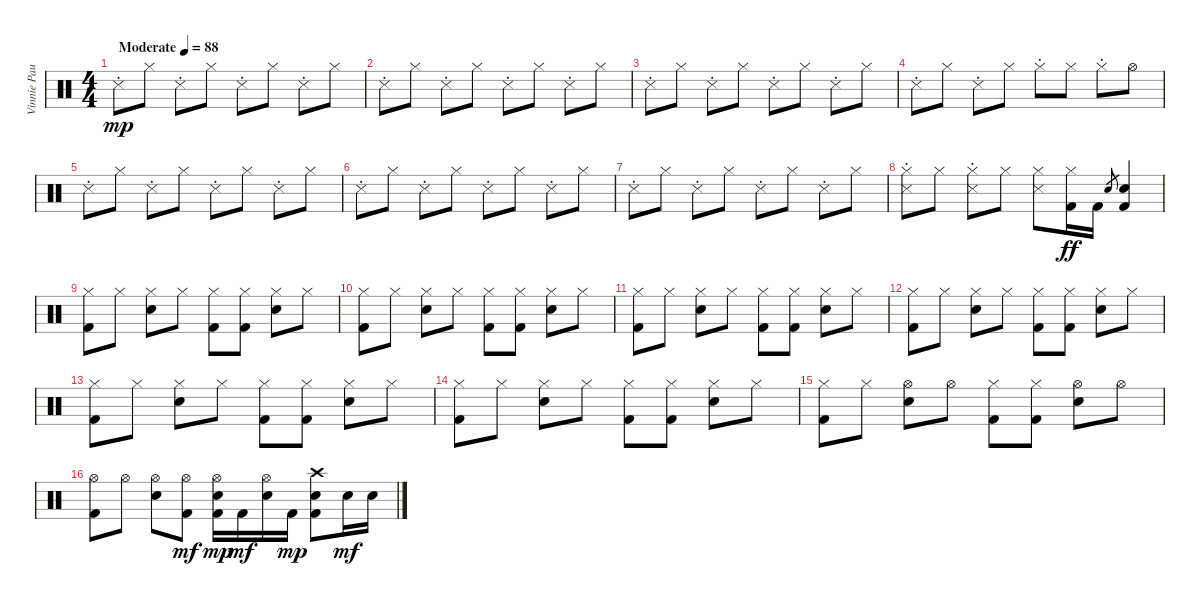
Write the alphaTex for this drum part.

\track ("Vinnie Paul" "Vinnie Pau") {instrument percussion}
\staff {score}
\articulation defaults
\ts (4 4)
\tempo (88 "Moderate")
\clef neutral
\ks c "Snare (side stick) 3"{st}.8{dy mp} "Hi-Hat (closed)".8 "Snare (side stick) 3"{st}.8 "Hi-Hat (closed)".8 "Snare (side stick) 3"{st}.8 "Hi-Hat (closed)".8 "Snare (side stick) 3"{st}.8 "Hi-Hat (closed)".8
|
"Snare (side stick) 3"{st}.8 "Hi-Hat (closed)".8 "Snare (side stick) 3"{st}.8 "Hi-Hat (closed)".8 "Snare (side stick) 3"{st}.8 "Hi-Hat (closed)".8 "Snare (side stick) 3"{st}.8 "Hi-Hat (closed)".8 |
"Snare (side stick) 3"{st}.8 "Hi-Hat (closed)".8 "Snare (side stick) 3"{st}.8 "Hi-Hat (closed)".8 "Snare (side stick) 3"{st}.8 "Hi-Hat (closed)".8 "Snare (side stick) 3"{st}.8 "Hi-Hat (closed)".8 |
"Snare (side stick) 3"{st}.8 "Hi-Hat (closed)".8 "Snare (side stick) 3"{st}.8 "Hi-Hat (closed)".8 "Hi-Hat (closed)"{st}.8 "Hi-Hat (closed)".8 "Hi-Hat (closed)"{st}.8 "Hi-Hat (open)".8 |
"Snare (side stick) 3"{st}.8 "Hi-Hat (closed)".8 "Snare (side stick) 3"{st}.8 "Hi-Hat (closed)".8 "Snare (side stick) 3"{st}.8 "Hi-Hat (closed)".8 "Snare (side stick) 3"{st}.8 "Hi-Hat (closed)".8 |
"Snare (side stick) 3"{st}.8 "Hi-Hat (closed)".8 "Snare (side stick) 3"{st}.8 "Hi-Hat (closed)".8 "Snare (side stick) 3"{st}.8 "Hi-Hat (closed)".8 "Snare (side stick) 3"{st}.8 "Hi-Hat (closed)".8 |
"Snare (side stick) 3"{st}.8 "Hi-Hat (closed)".8 "Snare (side stick) 3"{st}.8 "Hi-Hat (closed)".8 "Snare (side stick) 3"{st}.8 "Hi-Hat (closed)".8 "Snare (side stick) 3"{st}.8 "Hi-Hat (closed)".8 |
("Snare (side stick) 3"{st} "Hi-Hat (closed)").8 "Hi-Hat (closed)".8 ("Snare (side stick) 3"{st} "Hi-Hat (closed)").8 "Hi-Hat (closed)".8 ("Snare (side stick) 3" "Hi-Hat (closed)").8 ("Hi-Hat (closed)" "Kick (hit) 2").16{dy ff} "Kick (hit) 2".16 "Electric Snare (hit)".8{gr} ("Electric Snare (hit)" "Kick (hit) 2").4 |
("Hi-Hat (closed)" "Kick (hit) 2").8 "Hi-Hat (closed)".8 ("Hi-Hat (closed)" "Electric Snare (hit)").8 "Hi-Hat (closed)".8 ("Hi-Hat (closed)" "Kick (hit) 2").8 ("Hi-Hat (closed)" "Kick (hit) 2").8 ("Hi-Hat (closed)" "Electric Snare (hit)").8 "Hi-Hat (closed)".8 |
("Hi-Hat (closed)" "Kick (hit) 2").8 "Hi-Hat (closed)".8 ("Hi-Hat (closed)" "Electric Snare (hit)").8 "Hi-Hat (closed)".8 ("Hi-Hat (closed)" "Kick (hit) 2").8 ("Hi-Hat (closed)" "Kick (hit) 2").8 ("Hi-Hat (closed)" "Electric Snare (hit)").8 "Hi-Hat (closed)".8 |
("Hi-Hat (closed)" "Kick (hit) 2").8 "Hi-Hat (closed)".8 ("Hi-Hat (closed)" "Electric Snare (hit)").8 "Hi-Hat (closed)".8 ("Hi-Hat (closed)" "Kick (hit) 2").8 ("Hi-Hat (closed)" "Kick (hit) 2").8 ("Hi-Hat (closed)" "Electric Snare (hit)").8 "Hi-Hat (closed)".8 |
("Hi-Hat (closed)" "Kick (hit) 2").8 "Hi-Hat (closed)".8 ("Hi-Hat (closed)" "Electric Snare (hit)").8 "Hi-Hat (closed)".8 ("Hi-Hat (closed)" "Kick (hit) 2").8 ("Hi-Hat (closed)" "Kick (hit) 2").8 ("Hi-Hat (closed)" "Electric Snare (hit)").8 "Hi-Hat (closed)".8 |
("Hi-Hat (closed)" "Kick (hit) 2").8 "Hi-Hat (closed)".8 ("Hi-Hat (closed)" "Electric Snare (hit)").8 "Hi-Hat (closed)".8 ("Hi-Hat (closed)" "Kick (hit) 2").8 ("Hi-Hat (closed)" "Kick (hit) 2").8 ("Hi-Hat (closed)" "Electric Snare (hit)").8 "Hi-Hat (closed)".8 |
("Hi-Hat (closed)" "Kick (hit) 2").8 "Hi-Hat (closed)".8 ("Hi-Hat (closed)" "Electric Snare (hit)").8 "Hi-Hat (closed)".8 ("Hi-Hat (closed)" "Kick (hit) 2").8 ("Hi-Hat (closed)" "Kick (hit) 2").8 ("Hi-Hat (closed)" "Electric Snare (hit)").8 "Hi-Hat (closed)".8 |
("Hi-Hat (closed)" "Kick (hit) 2").8 "Hi-Hat (closed)".8 ("Hi-Hat (open)" "Electric Snare (hit)").8 "Hi-Hat (open)".8 ("Hi-Hat (closed)" "Kick (hit) 2").8 ("Hi-Hat (closed)" "Kick (hit) 2").8 ("Hi-Hat (open)" "Electric Snare (hit)").8 "Hi-Hat (open)".8 |
("Hi-Hat (open)" "Kick (hit) 2").8 "Hi-Hat (open)".8 ("Hi-Hat (open)" "Electric Snare (hit)").8 ("Hi-Hat (open)" "Kick (hit) 2").8{dy mf} ("Hi-Hat (open)" "Electric Snare (hit)" "Kick (hit) 2").16{dy mp} "Kick (hit) 2".16{dy mf} ("Hi-Hat (open)" "Electric Snare (hit)").16 "Kick (hit) 2".16{dy mp} ("Crash high (hit)" "Electric Snare (hit)" "Kick (hit) 2").8 "Electric Snare (hit)".16{dy mf} "Electric Snare (hit)".16
